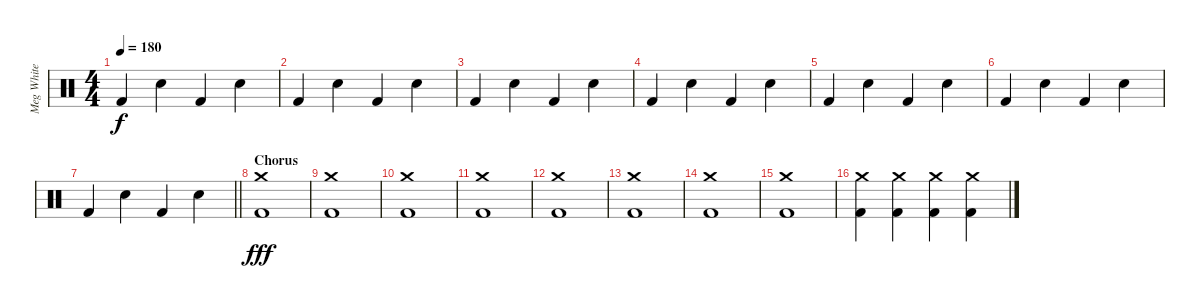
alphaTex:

\track ("Meg White (Drums)" "Meg White ") {instrument percussion}
\staff {score}
\articulation defaults
\ts (4 4)
\tempo 180
\clef neutral
\ks c "Kick (hit) 2".4{dy f} "Snare (hit) 2".4 "Kick (hit) 2".4 "Snare (hit) 2".4
|
"Kick (hit) 2".4 "Snare (hit) 2".4 "Kick (hit) 2".4 "Snare (hit) 2".4 |
"Kick (hit) 2".4 "Snare (hit) 2".4 "Kick (hit) 2".4 "Snare (hit) 2".4 |
"Kick (hit) 2".4 "Snare (hit) 2".4 "Kick (hit) 2".4 "Snare (hit) 2".4 |
"Kick (hit) 2".4 "Snare (hit) 2".4 "Kick (hit) 2".4 "Snare (hit) 2".4 |
"Kick (hit) 2".4 "Snare (hit) 2".4 "Kick (hit) 2".4 "Snare (hit) 2".4 |
\barLineRight lightlight "Kick (hit) 2".4 "Snare (hit) 2".4 "Kick (hit) 2".4 "Snare (hit) 2".4
|
\section ("" "Chorus")
("Kick (hit) 2" "Crash medium (hit)").1{dy fff} |
("Kick (hit) 2" "Crash medium (hit)").1 |
("Kick (hit) 2" "Crash medium (hit)").1 |
("Kick (hit) 2" "Crash medium (hit)").1 |
("Kick (hit) 2" "Crash medium (hit)").1 |
("Kick (hit) 2" "Crash medium (hit)").1 |
("Kick (hit) 2" "Crash medium (hit)").1 |
("Kick (hit) 2" "Crash medium (hit)").1 |
("Kick (hit) 2" "Crash medium (hit)").4 ("Kick (hit) 2" "Crash medium (hit)").4 ("Kick (hit) 2" "Crash medium (hit)").4 ("Kick (hit) 2" "Crash medium (hit)").4
